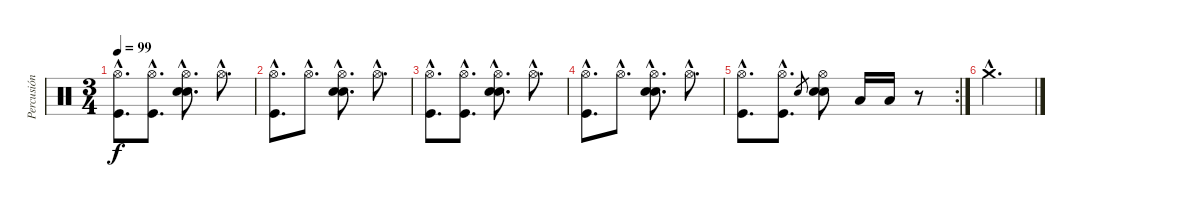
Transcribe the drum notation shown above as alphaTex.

\track ("Percusión" "Percusión") {instrument percussion}
\staff {score}
\articulation defaults
\ts (3 4)
\tempo 99
\clef neutral
\ks c
("Hi-Hat (open)"{hac} "Kick (hit)"{hac}).8{d dy f} ("Hi-Hat (open)"{hac} "Kick (hit)"{hac}).8{d} ("Hi-Hat (open)"{hac} "Electric Snare (hit)"{hac} "Snare (hit) 2"{hac}).8{d} "Hi-Hat (open)"{hac}.8{d} |
("Hi-Hat (open)"{hac} "Kick (hit)"{hac}).8{d} "Hi-Hat (open)"{hac}.8{d} ("Hi-Hat (open)"{hac} "Electric Snare (hit)"{hac} "Snare (hit) 2"{hac}).8{d} "Hi-Hat (open)"{hac}.8{d} |
("Hi-Hat (open)"{hac} "Kick (hit)"{hac}).8{d} ("Hi-Hat (open)"{hac} "Kick (hit)"{hac}).8{d} ("Hi-Hat (open)"{hac} "Electric Snare (hit)"{hac} "Snare (hit) 2"{hac}).8{d} "Hi-Hat (open)"{hac}.8{d} |
("Hi-Hat (open)"{hac} "Kick (hit)"{hac}).8{d} "Hi-Hat (open)"{hac}.8{d} ("Hi-Hat (open)"{hac} "Electric Snare (hit)"{hac} "Snare (hit) 2"{hac}).8{d} "Hi-Hat (open)"{hac}.8{d} |
\rc 2
("Hi-Hat (open)"{hac} "Kick (hit)"{hac}).8{d} ("Hi-Hat (open)"{hac} "Kick (hit)"{hac}).8{d} "Snare (hit) 2".8{gr} ("Hi-Hat (open)" "Snare (hit) 2" "Electric Snare (hit)").8 "Low Tom (hit)".16 "Low Tom (hit)".16 r.8 |
"Crash medium (hit)"{hac}.2{d}
